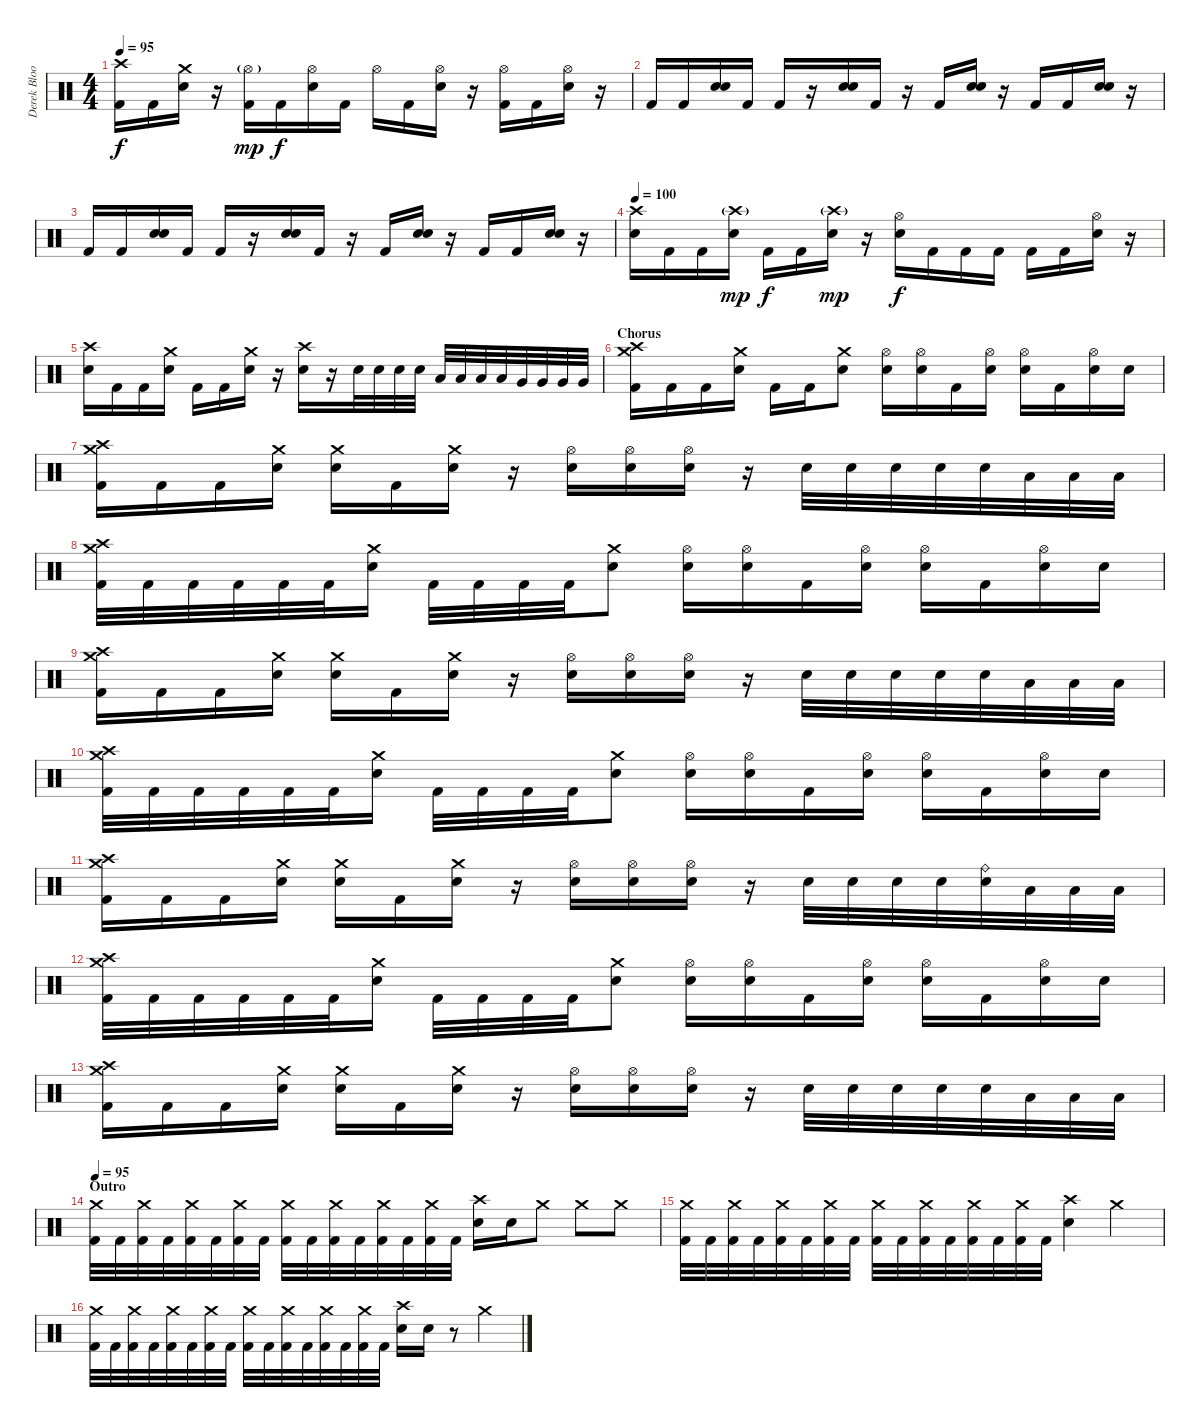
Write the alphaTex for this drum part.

\track ("Derek Bloom (Drums)" "Derek Bloo") {instrument percussion}
\staff {score}
\articulation defaults
\ts (4 4)
\tempo 95
\clef neutral
\ks c
("Crash high (hit)" "Kick (hit) 2").16{dy f} "Kick (hit) 2".16 ("Crash medium (hit)" "Electric Snare (hit)").16 r.16 ("Hi-Hat (open)"{g} "Kick (hit) 2").16{dy mp} "Kick (hit) 2".16{dy f} ("Hi-Hat (open)" "Electric Snare (hit)").16 "Kick (hit) 2".16 "Hi-Hat (open)".16 "Kick (hit) 2".16 ("Hi-Hat (open)" "Electric Snare (hit)").16 r.16 ("Hi-Hat (open)" "Kick (hit) 2").16 "Kick (hit) 2".16 ("Hi-Hat (open)" "Electric Snare (hit)").16 r.16 |
"Kick (hit) 2".16 "Kick (hit) 2".16 ("Electric Snare (hit)" "Hand Clap (hit)").16 "Kick (hit) 2".16 "Kick (hit) 2".16 r.16 ("Electric Snare (hit)" "Hand Clap (hit)").16 "Kick (hit) 2".16 r.16 "Kick (hit) 2".16 ("Electric Snare (hit)" "Hand Clap (hit)").16 r.16 "Kick (hit) 2".16 "Kick (hit) 2".16 ("Electric Snare (hit)" "Hand Clap (hit)").16 r.16 |
"Kick (hit) 2".16 "Kick (hit) 2".16 ("Electric Snare (hit)" "Hand Clap (hit)").16 "Kick (hit) 2".16 "Kick (hit) 2".16 r.16 ("Electric Snare (hit)" "Hand Clap (hit)").16 "Kick (hit) 2".16 r.16 "Kick (hit) 2".16 ("Electric Snare (hit)" "Hand Clap (hit)").16 r.16 "Kick (hit) 2".16 "Kick (hit) 2".16 ("Electric Snare (hit)" "Hand Clap (hit)").16 r.16 |
\tempo 100
("Crash high (hit)" "Electric Snare (hit)").16 "Kick (hit) 2".16 "Kick (hit) 2".16 ("Crash high (hit)"{g} "Electric Snare (hit)").16{dy mp} "Kick (hit) 2".16{dy f} "Kick (hit) 2".16 ("Crash high (hit)"{g} "Electric Snare (hit)").16{dy mp} r.16 ("Hi-Hat (open)" "Electric Snare (hit)").16{dy f} "Kick (hit) 2".16 "Kick (hit) 2".16 "Kick (hit) 2".16 "Kick (hit) 2".16 "Kick (hit) 2".16 ("Hi-Hat (open)" "Electric Snare (hit)").16 r.16 |
("Crash high (hit)" "Electric Snare (hit)").16 "Kick (hit) 2".16 "Kick (hit) 2".16 ("Crash medium (hit)" "Electric Snare (hit)").16 "Kick (hit) 2".16 "Kick (hit) 2".16 ("Crash medium (hit)" "Electric Snare (hit)").16 r.16 ("Crash high (hit)" "Electric Snare (hit)").16 r.16 "Electric Snare (hit)".32 "Electric Snare (hit)".32 "Electric Snare (hit)".32 "Electric Snare (hit)".32 "Low Tom (hit)".32 "Low Tom (hit)".32 "Low Tom (hit)".32 "Low Tom (hit)".32 "Very Low Tom (hit)".32 "Very Low Tom (hit)".32 "Very Low Tom (hit)".32 "Very Low Tom (hit)".32 |
\section ("" "Chorus")
("Crash medium (hit)" "Crash high (hit)" "Kick (hit) 2").16 "Kick (hit) 2".16 "Kick (hit) 2".16 ("Crash medium (hit)" "Electric Snare (hit)").16 "Kick (hit) 2".16 "Kick (hit) 2".16 ("Crash medium (hit)" "Electric Snare (hit)").8 ("Hi-Hat (open)" "Electric Snare (hit)").16 ("Hi-Hat (open)" "Electric Snare (hit)").16 "Kick (hit) 2".16 ("Hi-Hat (open)" "Electric Snare (hit)").16 ("Hi-Hat (open)" "Electric Snare (hit)").16 "Kick (hit) 2".16 ("Hi-Hat (open)" "Electric Snare (hit)").16 "Electric Snare (hit)".16 |
("Crash medium (hit)" "Crash high (hit)" "Kick (hit) 2").16 "Kick (hit) 2".16 "Kick (hit) 2".16 ("Crash medium (hit)" "Electric Snare (hit)").16 ("Crash medium (hit)" "Electric Snare (hit)").16 "Kick (hit) 2".16 ("Crash medium (hit)" "Electric Snare (hit)").16 r.16 ("Hi-Hat (open)" "Electric Snare (hit)").16 ("Hi-Hat (open)" "Electric Snare (hit)").16 ("Hi-Hat (open)" "Electric Snare (hit)").16 r.16 "Electric Snare (hit)".32 "Electric Snare (hit)".32 "Electric Snare (hit)".32 "Electric Snare (hit)".32 "Electric Snare (hit)".32 "Low Tom (hit)".32 "Low Tom (hit)".32 "Low Tom (hit)".32 |
("Crash medium (hit)" "Crash high (hit)" "Kick (hit) 2").32 "Kick (hit) 2".32 "Kick (hit) 2".32 "Kick (hit) 2".32 "Kick (hit) 2".32 "Kick (hit) 2".32 ("Crash medium (hit)" "Electric Snare (hit)").16 "Kick (hit) 2".32 "Kick (hit) 2".32 "Kick (hit) 2".32 "Kick (hit) 2".32 ("Crash medium (hit)" "Electric Snare (hit)").8 ("Hi-Hat (open)" "Electric Snare (hit)").16 ("Hi-Hat (open)" "Electric Snare (hit)").16 "Kick (hit) 2".16 ("Hi-Hat (open)" "Electric Snare (hit)").16 ("Hi-Hat (open)" "Electric Snare (hit)").16 "Kick (hit) 2".16 ("Hi-Hat (open)" "Electric Snare (hit)").16 "Electric Snare (hit)".16 |
("Crash medium (hit)" "Crash high (hit)" "Kick (hit) 2").16 "Kick (hit) 2".16 "Kick (hit) 2".16 ("Crash medium (hit)" "Electric Snare (hit)").16 ("Crash medium (hit)" "Electric Snare (hit)").16 "Kick (hit) 2".16 ("Crash medium (hit)" "Electric Snare (hit)").16 r.16 ("Hi-Hat (open)" "Electric Snare (hit)").16 ("Hi-Hat (open)" "Electric Snare (hit)").16 ("Hi-Hat (open)" "Electric Snare (hit)").16 r.16 "Electric Snare (hit)".32 "Electric Snare (hit)".32 "Electric Snare (hit)".32 "Electric Snare (hit)".32 "Electric Snare (hit)".32 "Low Tom (hit)".32 "Low Tom (hit)".32 "Low Tom (hit)".32 |
("Crash medium (hit)" "Crash high (hit)" "Kick (hit) 2").32 "Kick (hit) 2".32 "Kick (hit) 2".32 "Kick (hit) 2".32 "Kick (hit) 2".32 "Kick (hit) 2".32 ("Crash medium (hit)" "Electric Snare (hit)").16 "Kick (hit) 2".32 "Kick (hit) 2".32 "Kick (hit) 2".32 "Kick (hit) 2".32 ("Crash medium (hit)" "Electric Snare (hit)").8 ("Hi-Hat (open)" "Electric Snare (hit)").16 ("Hi-Hat (open)" "Electric Snare (hit)").16 "Kick (hit) 2".16 ("Hi-Hat (open)" "Electric Snare (hit)").16 ("Hi-Hat (open)" "Electric Snare (hit)").16 "Kick (hit) 2".16 ("Hi-Hat (open)" "Electric Snare (hit)").16 "Electric Snare (hit)".16 |
("Crash medium (hit)" "Crash high (hit)" "Kick (hit) 2").16 "Kick (hit) 2".16 "Kick (hit) 2".16 ("Crash medium (hit)" "Electric Snare (hit)").16 ("Crash medium (hit)" "Electric Snare (hit)").16 "Kick (hit) 2".16 ("Crash medium (hit)" "Electric Snare (hit)").16 r.16 ("Hi-Hat (open)" "Electric Snare (hit)").16 ("Hi-Hat (open)" "Electric Snare (hit)").16 ("Hi-Hat (open)" "Electric Snare (hit)").16 r.16 "Electric Snare (hit)".32 "Electric Snare (hit)".32 "Electric Snare (hit)".32 "Electric Snare (hit)".32 ("Ride (bell)" "Electric Snare (hit)").32 "Low Tom (hit)".32 "Low Tom (hit)".32 "Low Tom (hit)".32 |
("Crash medium (hit)" "Crash high (hit)" "Kick (hit) 2").32 "Kick (hit) 2".32 "Kick (hit) 2".32 "Kick (hit) 2".32 "Kick (hit) 2".32 "Kick (hit) 2".32 ("Crash medium (hit)" "Electric Snare (hit)").16 "Kick (hit) 2".32 "Kick (hit) 2".32 "Kick (hit) 2".32 "Kick (hit) 2".32 ("Crash medium (hit)" "Electric Snare (hit)").8 ("Hi-Hat (open)" "Electric Snare (hit)").16 ("Hi-Hat (open)" "Electric Snare (hit)").16 "Kick (hit) 2".16 ("Hi-Hat (open)" "Electric Snare (hit)").16 ("Hi-Hat (open)" "Electric Snare (hit)").16 "Kick (hit) 2".16 ("Hi-Hat (open)" "Electric Snare (hit)").16 "Electric Snare (hit)".16 |
("Crash medium (hit)" "Crash high (hit)" "Kick (hit) 2").16 "Kick (hit) 2".16 "Kick (hit) 2".16 ("Crash medium (hit)" "Electric Snare (hit)").16 ("Crash medium (hit)" "Electric Snare (hit)").16 "Kick (hit) 2".16 ("Crash medium (hit)" "Electric Snare (hit)").16 r.16 ("Hi-Hat (open)" "Electric Snare (hit)").16 ("Hi-Hat (open)" "Electric Snare (hit)").16 ("Hi-Hat (open)" "Electric Snare (hit)").16 r.16 "Electric Snare (hit)".32 "Electric Snare (hit)".32 "Electric Snare (hit)".32 "Electric Snare (hit)".32 "Electric Snare (hit)".32 "Low Tom (hit)".32 "Low Tom (hit)".32 "Low Tom (hit)".32 |
\section ("" "Outro")
\tempo 95
("Crash medium (hit)" "Kick (hit) 2").32 "Kick (hit) 2".32 ("Crash medium (hit)" "Kick (hit) 2").32 "Kick (hit) 2".32 ("Crash medium (hit)" "Kick (hit) 2").32 "Kick (hit) 2".32 ("Crash medium (hit)" "Kick (hit) 2").32 "Kick (hit) 2".32 ("Crash medium (hit)" "Kick (hit) 2").32 "Kick (hit) 2".32 ("Crash medium (hit)" "Kick (hit) 2").32 "Kick (hit) 2".32 ("Crash medium (hit)" "Kick (hit) 2").32 "Kick (hit) 2".32 ("Crash medium (hit)" "Kick (hit) 2").32 "Kick (hit) 2".32 ("Crash high (hit)" "Electric Snare (hit)").16 "Electric Snare (hit)".16 "Crash medium (hit)".8 "Crash medium (hit)".8 "Crash medium (hit)".8 |
("Crash medium (hit)" "Kick (hit) 2").32 "Kick (hit) 2".32 ("Crash medium (hit)" "Kick (hit) 2").32 "Kick (hit) 2".32 ("Crash medium (hit)" "Kick (hit) 2").32 "Kick (hit) 2".32 ("Crash medium (hit)" "Kick (hit) 2").32 "Kick (hit) 2".32 ("Crash medium (hit)" "Kick (hit) 2").32 "Kick (hit) 2".32 ("Crash medium (hit)" "Kick (hit) 2").32 "Kick (hit) 2".32 ("Crash medium (hit)" "Kick (hit) 2").32 "Kick (hit) 2".32 ("Crash medium (hit)" "Kick (hit) 2").32 "Kick (hit) 2".32 ("Crash high (hit)" "Electric Snare (hit)").4 "Crash medium (hit)".4 |
("Crash medium (hit)" "Kick (hit) 2").32 "Kick (hit) 2".32 ("Crash medium (hit)" "Kick (hit) 2").32 "Kick (hit) 2".32 ("Crash medium (hit)" "Kick (hit) 2").32 "Kick (hit) 2".32 ("Crash medium (hit)" "Kick (hit) 2").32 "Kick (hit) 2".32 ("Crash medium (hit)" "Kick (hit) 2").32 "Kick (hit) 2".32 ("Crash medium (hit)" "Kick (hit) 2").32 "Kick (hit) 2".32 ("Crash medium (hit)" "Kick (hit) 2").32 "Kick (hit) 2".32 ("Crash medium (hit)" "Kick (hit) 2").32 "Kick (hit) 2".32 ("Crash high (hit)" "Electric Snare (hit)").16 "Electric Snare (hit)".16 r.8 "Crash medium (hit)".4
